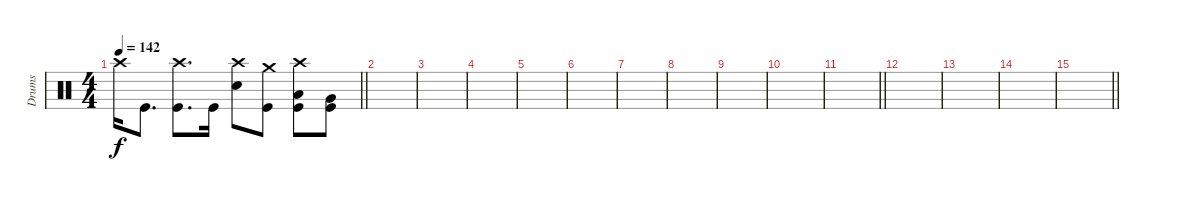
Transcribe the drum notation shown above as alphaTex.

\track ("Drums" "Drums") {instrument percussion}
\staff
\articulation defaults
\ts (4 4)
\tempo 142
\clef neutral
\barLineRight lightlight
\ks c "Crash high (hit)".16{dy f} "Kick (hit)".8{d}
("Crash high (hit)" "Kick (hit)").8{d} "Kick (hit)".16 ("Crash high (hit)" "Electric Snare (hit)").8 ("Crash medium (hit)" "Kick (hit)").8 ("Crash high (hit)" "Low Tom (hit)" "Kick (hit)").8 ("Very Low Tom (hit)" "Kick (hit)").8 |
|
|
|
|
|
|
|
|
|
\barLineRight lightlight
|
|
|
|
\barLineRight lightlight
